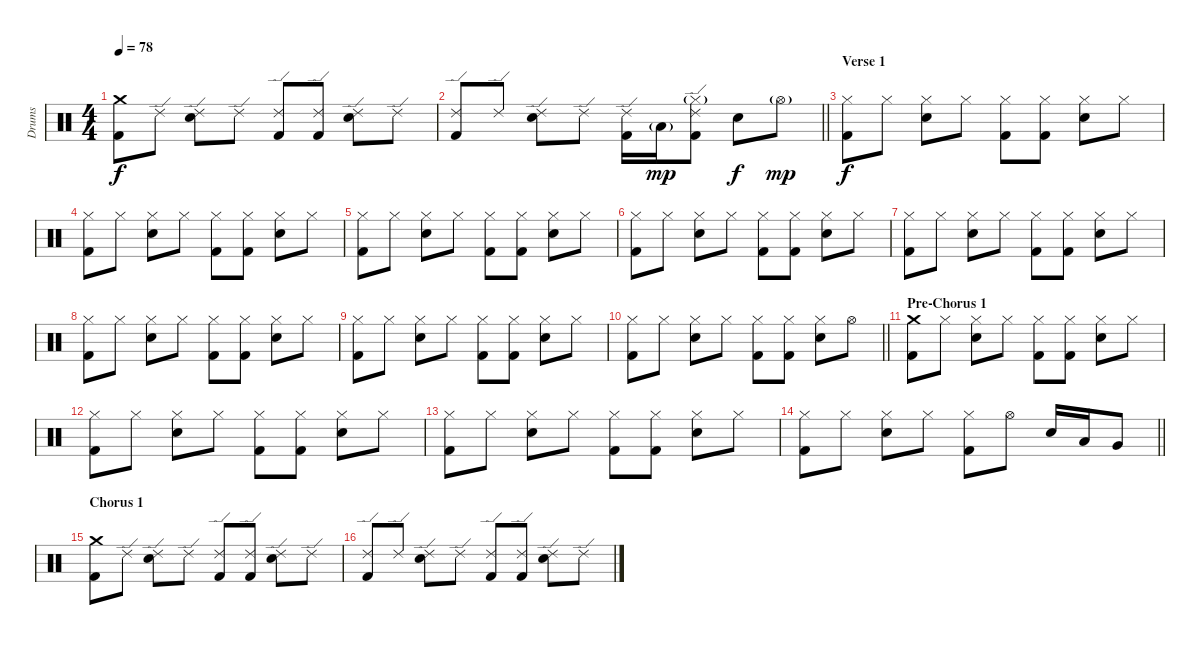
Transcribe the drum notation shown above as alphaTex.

\track ("Drums" "Drums") {instrument percussion}
\staff {score}
\articulation defaults
\ts (4 4)
\tempo 78
\clef neutral
\ks c
("Crash medium (hit)" "Kick (hit) 2").8{dy f} "Ride (edge) 2".8 ("Ride (edge) 2" "Electric Snare (hit)").8 "Ride (edge) 2".8 ("Ride (edge) 2" "Kick (hit) 2").8 ("Ride (edge) 2" "Kick (hit) 2").8 ("Ride (edge) 2" "Electric Snare (hit)").8 "Ride (edge) 2".8 |
\barLineRight lightlight
("Ride (edge) 2" "Kick (hit) 2").8 "Ride (edge) 2".8 ("Ride (edge) 2" "Electric Snare (hit)").8 "Ride (edge) 2".8 ("Ride (edge) 2" "Kick (hit) 2").16 "Low Tom (hit)"{g}.16{dy mp} ("Ride (edge) 2" "Hi-Hat (closed)"{g} "Kick (hit) 2").8 "Electric Snare (hit)".8{dy f} "Hi-Hat (open)"{g}.8{dy mp} |
\section ("" "Verse 1")
("Hi-Hat (closed)" "Kick (hit) 2").8{dy f} "Hi-Hat (closed)".8 ("Hi-Hat (closed)" "Electric Snare (hit)").8 "Hi-Hat (closed)".8 ("Hi-Hat (closed)" "Kick (hit) 2").8 ("Hi-Hat (closed)" "Kick (hit) 2").8 ("Hi-Hat (closed)" "Electric Snare (hit)").8 "Hi-Hat (closed)".8 |
("Hi-Hat (closed)" "Kick (hit) 2").8 "Hi-Hat (closed)".8 ("Hi-Hat (closed)" "Electric Snare (hit)").8 "Hi-Hat (closed)".8 ("Hi-Hat (closed)" "Kick (hit) 2").8 ("Hi-Hat (closed)" "Kick (hit) 2").8 ("Hi-Hat (closed)" "Electric Snare (hit)").8 "Hi-Hat (closed)".8 |
("Hi-Hat (closed)" "Kick (hit) 2").8 "Hi-Hat (closed)".8 ("Hi-Hat (closed)" "Electric Snare (hit)").8 "Hi-Hat (closed)".8 ("Hi-Hat (closed)" "Kick (hit) 2").8 ("Hi-Hat (closed)" "Kick (hit) 2").8 ("Hi-Hat (closed)" "Electric Snare (hit)").8 "Hi-Hat (closed)".8 |
("Hi-Hat (closed)" "Kick (hit) 2").8 "Hi-Hat (closed)".8 ("Hi-Hat (closed)" "Electric Snare (hit)").8 "Hi-Hat (closed)".8 ("Hi-Hat (closed)" "Kick (hit) 2").8 ("Hi-Hat (closed)" "Kick (hit) 2").8 ("Hi-Hat (closed)" "Electric Snare (hit)").8 "Hi-Hat (closed)".8 |
("Hi-Hat (closed)" "Kick (hit) 2").8 "Hi-Hat (closed)".8 ("Hi-Hat (closed)" "Electric Snare (hit)").8 "Hi-Hat (closed)".8 ("Hi-Hat (closed)" "Kick (hit) 2").8 ("Hi-Hat (closed)" "Kick (hit) 2").8 ("Hi-Hat (closed)" "Electric Snare (hit)").8 "Hi-Hat (closed)".8 |
("Hi-Hat (closed)" "Kick (hit) 2").8 "Hi-Hat (closed)".8 ("Hi-Hat (closed)" "Electric Snare (hit)").8 "Hi-Hat (closed)".8 ("Hi-Hat (closed)" "Kick (hit) 2").8 ("Hi-Hat (closed)" "Kick (hit) 2").8 ("Hi-Hat (closed)" "Electric Snare (hit)").8 "Hi-Hat (closed)".8 |
("Hi-Hat (closed)" "Kick (hit) 2").8 "Hi-Hat (closed)".8 ("Hi-Hat (closed)" "Electric Snare (hit)").8 "Hi-Hat (closed)".8 ("Hi-Hat (closed)" "Kick (hit) 2").8 ("Hi-Hat (closed)" "Kick (hit) 2").8 ("Hi-Hat (closed)" "Electric Snare (hit)").8 "Hi-Hat (closed)".8 |
\barLineRight lightlight
("Hi-Hat (closed)" "Kick (hit) 2").8 "Hi-Hat (closed)".8 ("Hi-Hat (closed)" "Electric Snare (hit)").8 "Hi-Hat (closed)".8 ("Hi-Hat (closed)" "Kick (hit) 2").8 ("Hi-Hat (closed)" "Kick (hit) 2").8 ("Hi-Hat (closed)" "Electric Snare (hit)").8 "Hi-Hat (open)".8 |
\section ("" "Pre-Chorus 1")
("Crash medium (hit)" "Kick (hit) 2").8 "Hi-Hat (closed)".8 ("Hi-Hat (closed)" "Electric Snare (hit)").8 "Hi-Hat (closed)".8 ("Hi-Hat (closed)" "Kick (hit) 2").8 ("Hi-Hat (closed)" "Kick (hit) 2").8 ("Hi-Hat (closed)" "Electric Snare (hit)").8 "Hi-Hat (closed)".8 |
("Hi-Hat (closed)" "Kick (hit) 2").8 "Hi-Hat (closed)".8 ("Hi-Hat (closed)" "Electric Snare (hit)").8 "Hi-Hat (closed)".8 ("Hi-Hat (closed)" "Kick (hit) 2").8 ("Hi-Hat (closed)" "Kick (hit) 2").8 ("Hi-Hat (closed)" "Electric Snare (hit)").8 "Hi-Hat (closed)".8 |
("Hi-Hat (closed)" "Kick (hit) 2").8 "Hi-Hat (closed)".8 ("Hi-Hat (closed)" "Electric Snare (hit)").8 "Hi-Hat (closed)".8 ("Hi-Hat (closed)" "Kick (hit) 2").8 ("Hi-Hat (closed)" "Kick (hit) 2").8 ("Hi-Hat (closed)" "Electric Snare (hit)").8 "Hi-Hat (closed)".8 |
\barLineRight lightlight
("Hi-Hat (closed)" "Kick (hit) 2").8 "Hi-Hat (closed)".8 ("Hi-Hat (closed)" "Electric Snare (hit)").8 "Hi-Hat (closed)".8 ("Hi-Hat (closed)" "Kick (hit) 2").8 "Hi-Hat (open)".8 "Electric Snare (hit)".16 "Low Tom (hit)".16 "Very Low Tom (hit)".8 |
\section ("" "Chorus 1")
("Crash medium (hit)" "Kick (hit) 2").8 "Ride (edge) 2".8 ("Ride (edge) 2" "Electric Snare (hit)").8 "Ride (edge) 2".8 ("Ride (edge) 2" "Kick (hit) 2").8 ("Ride (edge) 2" "Kick (hit) 2").8 ("Ride (edge) 2" "Electric Snare (hit)").8 "Ride (edge) 2".8 |
("Ride (edge) 2" "Kick (hit) 2").8 "Ride (edge) 2".8 ("Ride (edge) 2" "Electric Snare (hit)").8 "Ride (edge) 2".8 ("Ride (edge) 2" "Kick (hit) 2").8 ("Ride (edge) 2" "Kick (hit) 2").8 ("Ride (edge) 2" "Electric Snare (hit)").8 "Ride (edge) 2".8
